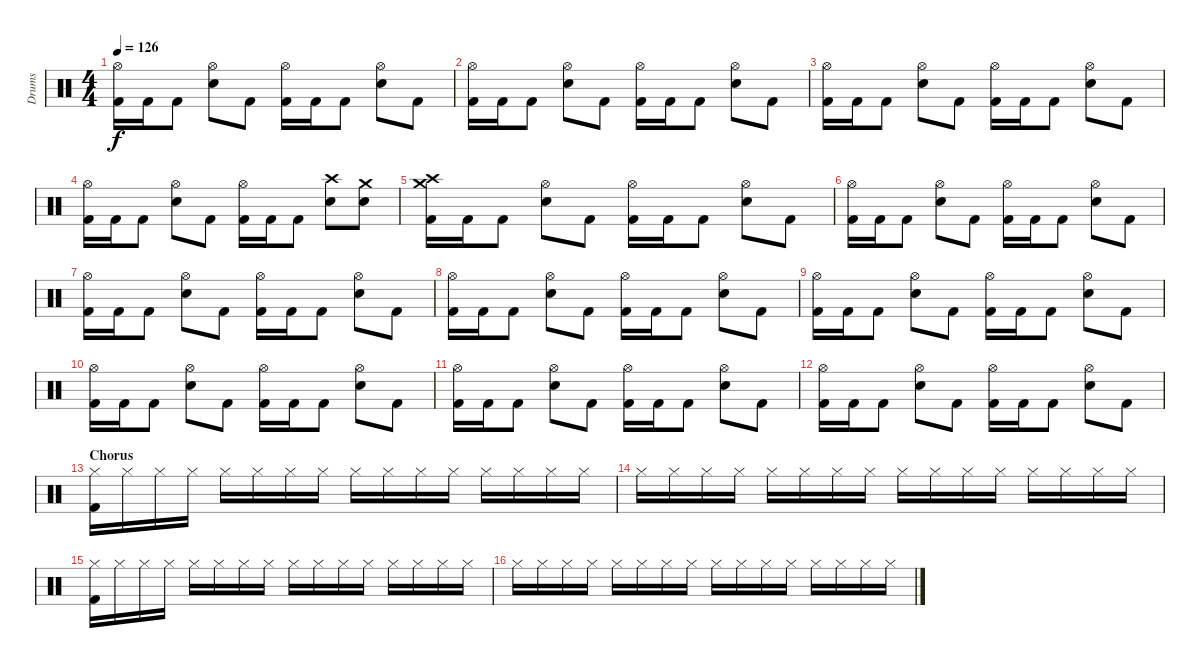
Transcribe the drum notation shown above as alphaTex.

\track ("Drums" "Drums") {instrument percussion}
\staff {score}
\articulation defaults
\ts (4 4)
\tempo 126
\clef neutral
\ks c
("Hi-Hat (open)" "Kick (hit) 2").16{dy f} "Kick (hit) 2".16 "Kick (hit) 2".8 ("Hi-Hat (open)" "Electric Snare (hit)").8 "Kick (hit) 2".8 ("Hi-Hat (open)" "Kick (hit) 2").16 "Kick (hit) 2".16 "Kick (hit) 2".8 ("Hi-Hat (open)" "Electric Snare (hit)").8 "Kick (hit) 2".8 |
("Hi-Hat (open)" "Kick (hit) 2").16 "Kick (hit) 2".16 "Kick (hit) 2".8 ("Hi-Hat (open)" "Electric Snare (hit)").8 "Kick (hit) 2".8 ("Hi-Hat (open)" "Kick (hit) 2").16 "Kick (hit) 2".16 "Kick (hit) 2".8 ("Hi-Hat (open)" "Electric Snare (hit)").8 "Kick (hit) 2".8 |
("Hi-Hat (open)" "Kick (hit) 2").16 "Kick (hit) 2".16 "Kick (hit) 2".8 ("Hi-Hat (open)" "Electric Snare (hit)").8 "Kick (hit) 2".8 ("Hi-Hat (open)" "Kick (hit) 2").16 "Kick (hit) 2".16 "Kick (hit) 2".8 ("Hi-Hat (open)" "Electric Snare (hit)").8 "Kick (hit) 2".8 |
("Hi-Hat (open)" "Kick (hit) 2").16 "Kick (hit) 2".16 "Kick (hit) 2".8 ("Hi-Hat (open)" "Electric Snare (hit)").8 "Kick (hit) 2".8 ("Hi-Hat (open)" "Kick (hit) 2").16 "Kick (hit) 2".16 "Kick (hit) 2".8 ("Crash high (hit)" "Electric Snare (hit)").8 ("Crash medium (hit)" "Electric Snare (hit)").8 |
("Crash high (hit)" "Crash medium (hit)" "Kick (hit) 2").16 "Kick (hit) 2".16 "Kick (hit) 2".8 ("Hi-Hat (open)" "Electric Snare (hit)").8 "Kick (hit) 2".8 ("Hi-Hat (open)" "Kick (hit) 2").16 "Kick (hit) 2".16 "Kick (hit) 2".8 ("Hi-Hat (open)" "Electric Snare (hit)").8 "Kick (hit) 2".8 |
("Hi-Hat (open)" "Kick (hit) 2").16 "Kick (hit) 2".16 "Kick (hit) 2".8 ("Hi-Hat (open)" "Electric Snare (hit)").8 "Kick (hit) 2".8 ("Hi-Hat (open)" "Kick (hit) 2").16 "Kick (hit) 2".16 "Kick (hit) 2".8 ("Hi-Hat (open)" "Electric Snare (hit)").8 "Kick (hit) 2".8 |
("Hi-Hat (open)" "Kick (hit) 2").16 "Kick (hit) 2".16 "Kick (hit) 2".8 ("Hi-Hat (open)" "Electric Snare (hit)").8 "Kick (hit) 2".8 ("Hi-Hat (open)" "Kick (hit) 2").16 "Kick (hit) 2".16 "Kick (hit) 2".8 ("Hi-Hat (open)" "Electric Snare (hit)").8 "Kick (hit) 2".8 |
("Hi-Hat (open)" "Kick (hit) 2").16 "Kick (hit) 2".16 "Kick (hit) 2".8 ("Hi-Hat (open)" "Electric Snare (hit)").8 "Kick (hit) 2".8 ("Hi-Hat (open)" "Kick (hit) 2").16 "Kick (hit) 2".16 "Kick (hit) 2".8 ("Hi-Hat (open)" "Electric Snare (hit)").8 "Kick (hit) 2".8 |
("Hi-Hat (open)" "Kick (hit) 2").16 "Kick (hit) 2".16 "Kick (hit) 2".8 ("Hi-Hat (open)" "Electric Snare (hit)").8 "Kick (hit) 2".8 ("Hi-Hat (open)" "Kick (hit) 2").16 "Kick (hit) 2".16 "Kick (hit) 2".8 ("Hi-Hat (open)" "Electric Snare (hit)").8 "Kick (hit) 2".8 |
("Hi-Hat (open)" "Kick (hit) 2").16 "Kick (hit) 2".16 "Kick (hit) 2".8 ("Hi-Hat (open)" "Electric Snare (hit)").8 "Kick (hit) 2".8 ("Hi-Hat (open)" "Kick (hit) 2").16 "Kick (hit) 2".16 "Kick (hit) 2".8 ("Hi-Hat (open)" "Electric Snare (hit)").8 "Kick (hit) 2".8 |
("Hi-Hat (open)" "Kick (hit) 2").16 "Kick (hit) 2".16 "Kick (hit) 2".8 ("Hi-Hat (open)" "Electric Snare (hit)").8 "Kick (hit) 2".8 ("Hi-Hat (open)" "Kick (hit) 2").16 "Kick (hit) 2".16 "Kick (hit) 2".8 ("Hi-Hat (open)" "Electric Snare (hit)").8 "Kick (hit) 2".8 |
("Hi-Hat (open)" "Kick (hit) 2").16 "Kick (hit) 2".16 "Kick (hit) 2".8 ("Hi-Hat (open)" "Electric Snare (hit)").8 "Kick (hit) 2".8 ("Hi-Hat (open)" "Kick (hit) 2").16 "Kick (hit) 2".16 "Kick (hit) 2".8 ("Hi-Hat (open)" "Electric Snare (hit)").8 "Kick (hit) 2".8 |
\section ("" "Chorus")
("Hi-Hat (closed)" "Kick (hit) 2").16 "Hi-Hat (closed)".16 "Hi-Hat (closed)".16 "Hi-Hat (closed)".16 "Hi-Hat (closed)".16 "Hi-Hat (closed)".16 "Hi-Hat (closed)".16 "Hi-Hat (closed)".16 "Hi-Hat (closed)".16 "Hi-Hat (closed)".16 "Hi-Hat (closed)".16 "Hi-Hat (closed)".16 "Hi-Hat (closed)".16 "Hi-Hat (closed)".16 "Hi-Hat (closed)".16 "Hi-Hat (closed)".16 |
"Hi-Hat (closed)".16 "Hi-Hat (closed)".16 "Hi-Hat (closed)".16 "Hi-Hat (closed)".16 "Hi-Hat (closed)".16 "Hi-Hat (closed)".16 "Hi-Hat (closed)".16 "Hi-Hat (closed)".16 "Hi-Hat (closed)".16 "Hi-Hat (closed)".16 "Hi-Hat (closed)".16 "Hi-Hat (closed)".16 "Hi-Hat (closed)".16 "Hi-Hat (closed)".16 "Hi-Hat (closed)".16 "Hi-Hat (closed)".16 |
("Hi-Hat (closed)" "Kick (hit) 2").16 "Hi-Hat (closed)".16 "Hi-Hat (closed)".16 "Hi-Hat (closed)".16 "Hi-Hat (closed)".16 "Hi-Hat (closed)".16 "Hi-Hat (closed)".16 "Hi-Hat (closed)".16 "Hi-Hat (closed)".16 "Hi-Hat (closed)".16 "Hi-Hat (closed)".16 "Hi-Hat (closed)".16 "Hi-Hat (closed)".16 "Hi-Hat (closed)".16 "Hi-Hat (closed)".16 "Hi-Hat (closed)".16 |
"Hi-Hat (closed)".16 "Hi-Hat (closed)".16 "Hi-Hat (closed)".16 "Hi-Hat (closed)".16 "Hi-Hat (closed)".16 "Hi-Hat (closed)".16 "Hi-Hat (closed)".16 "Hi-Hat (closed)".16 "Hi-Hat (closed)".16 "Hi-Hat (closed)".16 "Hi-Hat (closed)".16 "Hi-Hat (closed)".16 "Hi-Hat (closed)".16 "Hi-Hat (closed)".16 "Hi-Hat (closed)".16 "Hi-Hat (closed)".16
